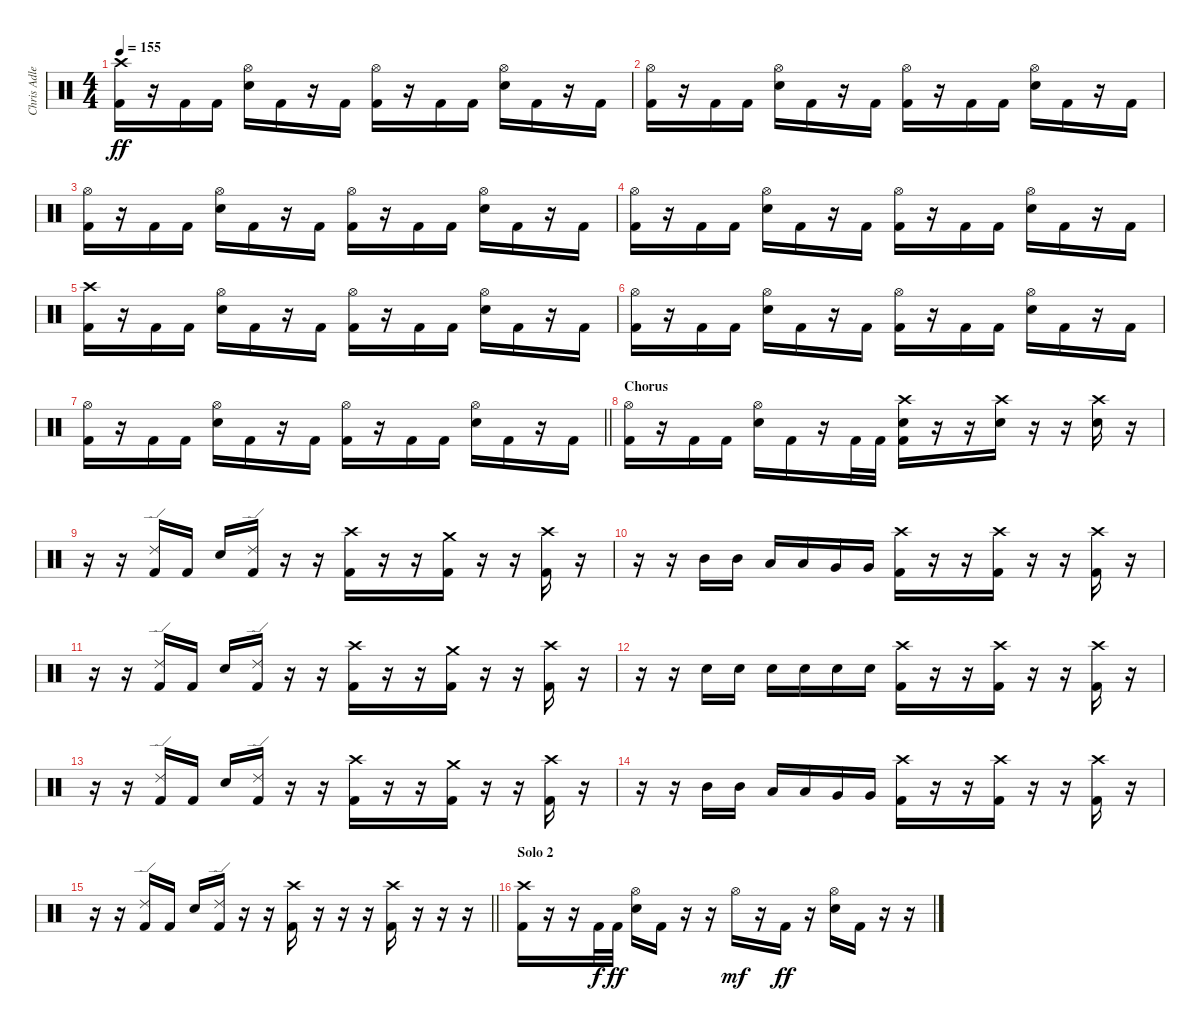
\track ("Chris Adler" "Chris Adle") {instrument percussion}
\staff {score}
\articulation defaults
\ts (4 4)
\tempo 155
\clef neutral
\ks c
("Crash high (hit)" "Kick (hit) 2").16{dy ff} r.16 "Kick (hit) 2".16 "Kick (hit) 2".16 ("Hi-Hat (open)" "Snare (hit) 2").16 "Kick (hit) 2".16 r.16 "Kick (hit) 2".16 ("Hi-Hat (open)" "Kick (hit) 2").16 r.16 "Kick (hit) 2".16 "Kick (hit) 2".16 ("Hi-Hat (open)" "Snare (hit) 2").16 "Kick (hit) 2".16 r.16 "Kick (hit) 2".16 |
("Hi-Hat (open)" "Kick (hit) 2").16 r.16 "Kick (hit) 2".16 "Kick (hit) 2".16 ("Hi-Hat (open)" "Snare (hit) 2").16 "Kick (hit) 2".16 r.16 "Kick (hit) 2".16 ("Hi-Hat (open)" "Kick (hit) 2").16 r.16 "Kick (hit) 2".16 "Kick (hit) 2".16 ("Hi-Hat (open)" "Snare (hit) 2").16 "Kick (hit) 2".16 r.16 "Kick (hit) 2".16 |
("Hi-Hat (open)" "Kick (hit) 2").16 r.16 "Kick (hit) 2".16 "Kick (hit) 2".16 ("Hi-Hat (open)" "Snare (hit) 2").16 "Kick (hit) 2".16 r.16 "Kick (hit) 2".16 ("Hi-Hat (open)" "Kick (hit) 2").16 r.16 "Kick (hit) 2".16 "Kick (hit) 2".16 ("Hi-Hat (open)" "Snare (hit) 2").16 "Kick (hit) 2".16 r.16 "Kick (hit) 2".16 |
("Hi-Hat (open)" "Kick (hit) 2").16 r.16 "Kick (hit) 2".16 "Kick (hit) 2".16 ("Hi-Hat (open)" "Snare (hit) 2").16 "Kick (hit) 2".16 r.16 "Kick (hit) 2".16 ("Hi-Hat (open)" "Kick (hit) 2").16 r.16 "Kick (hit) 2".16 "Kick (hit) 2".16 ("Hi-Hat (open)" "Snare (hit) 2").16 "Kick (hit) 2".16 r.16 "Kick (hit) 2".16 |
("Crash high (hit)" "Kick (hit) 2").16 r.16 "Kick (hit) 2".16 "Kick (hit) 2".16 ("Hi-Hat (open)" "Snare (hit) 2").16 "Kick (hit) 2".16 r.16 "Kick (hit) 2".16 ("Hi-Hat (open)" "Kick (hit) 2").16 r.16 "Kick (hit) 2".16 "Kick (hit) 2".16 ("Hi-Hat (open)" "Snare (hit) 2").16 "Kick (hit) 2".16 r.16 "Kick (hit) 2".16 |
("Hi-Hat (open)" "Kick (hit) 2").16 r.16 "Kick (hit) 2".16 "Kick (hit) 2".16 ("Hi-Hat (open)" "Snare (hit) 2").16 "Kick (hit) 2".16 r.16 "Kick (hit) 2".16 ("Hi-Hat (open)" "Kick (hit) 2").16 r.16 "Kick (hit) 2".16 "Kick (hit) 2".16 ("Hi-Hat (open)" "Snare (hit) 2").16 "Kick (hit) 2".16 r.16 "Kick (hit) 2".16 |
\barLineRight lightlight
("Hi-Hat (open)" "Kick (hit) 2").16 r.16 "Kick (hit) 2".16 "Kick (hit) 2".16 ("Hi-Hat (open)" "Snare (hit) 2").16 "Kick (hit) 2".16 r.16 "Kick (hit) 2".16 ("Hi-Hat (open)" "Kick (hit) 2").16 r.16 "Kick (hit) 2".16 "Kick (hit) 2".16 ("Hi-Hat (open)" "Snare (hit) 2").16 "Kick (hit) 2".16 r.16 "Kick (hit) 2".16 |
\section ("" "Chorus")
("Hi-Hat (open)" "Kick (hit) 2").16 r.16 "Kick (hit) 2".16 "Kick (hit) 2".16 ("Hi-Hat (open)" "Snare (hit) 2").16 "Kick (hit) 2".16 r.16 "Kick (hit) 2".32 "Kick (hit) 2".32 ("Crash high (hit)" "Snare (hit) 2" "Kick (hit) 2").16 r.16 r.16 ("Crash high (hit)" "Snare (hit) 2").16 r.16 r.16 ("Crash high (hit)" "Snare (hit) 2").16 r.16 |
r.16 r.16 ("Ride (edge) 2" "Kick (hit) 2").16 "Kick (hit) 2".16 "Snare (hit) 2".16 ("Ride (edge) 2" "Kick (hit) 2").16 r.16 r.16 ("Crash high (hit)" "Kick (hit) 2").16 r.16 r.16 ("Crash medium (hit)" "Kick (hit) 2").16 r.16 r.16 ("Crash high (hit)" "Kick (hit) 2").16 r.16 |
r.16 r.16 "Mid Tom (hit)".16 "Mid Tom (hit)".16 "Low Tom (hit)".16 "Low Tom (hit)".16 "Very Low Tom (hit)".16 "Very Low Tom (hit)".16 ("Crash high (hit)" "Kick (hit) 2").16 r.16 r.16 ("Crash high (hit)" "Kick (hit) 2").16 r.16 r.16 ("Crash high (hit)" "Kick (hit) 2").16 r.16 |
r.16 r.16 ("Ride (edge) 2" "Kick (hit) 2").16 "Kick (hit) 2".16 "Snare (hit) 2".16 ("Ride (edge) 2" "Kick (hit) 2").16 r.16 r.16 ("Crash high (hit)" "Kick (hit) 2").16 r.16 r.16 ("Crash medium (hit)" "Kick (hit) 2").16 r.16 r.16 ("Crash high (hit)" "Kick (hit) 2").16 r.16 |
r.16 r.16 "Snare (hit) 2".16 "Snare (hit) 2".16 "Snare (hit) 2".16 "Snare (hit) 2".16 "Snare (hit) 2".16 "Snare (hit) 2".16 ("Crash high (hit)" "Kick (hit) 2").16 r.16 r.16 ("Crash high (hit)" "Kick (hit) 2").16 r.16 r.16 ("Crash high (hit)" "Kick (hit) 2").16 r.16 |
r.16 r.16 ("Ride (edge) 2" "Kick (hit) 2").16 "Kick (hit) 2".16 "Snare (hit) 2".16 ("Ride (edge) 2" "Kick (hit) 2").16 r.16 r.16 ("Crash high (hit)" "Kick (hit) 2").16 r.16 r.16 ("Crash medium (hit)" "Kick (hit) 2").16 r.16 r.16 ("Crash high (hit)" "Kick (hit) 2").16 r.16 |
r.16 r.16 "Mid Tom (hit)".16 "Mid Tom (hit)".16 "Low Tom (hit)".16 "Low Tom (hit)".16 "Very Low Tom (hit)".16 "Very Low Tom (hit)".16 ("Crash high (hit)" "Kick (hit) 2").16 r.16 r.16 ("Crash high (hit)" "Kick (hit) 2").16 r.16 r.16 ("Crash high (hit)" "Kick (hit) 2").16 r.16 |
\barLineRight lightlight
r.16 r.16 ("Ride (edge) 2" "Kick (hit) 2").16 "Kick (hit) 2".16 "Snare (hit) 2".16 ("Ride (edge) 2" "Kick (hit) 2").16 r.16 r.16 ("Crash high (hit)" "Kick (hit) 2").16 r.16 r.16 r.16 ("Crash high (hit)" "Kick (hit) 2").16 r.16 r.16 r.16 |
\section ("" "Solo 2")
("Crash high (hit)" "Kick (hit) 2").16 r.16 r.16 "Kick (hit) 2".32{dy f} "Kick (hit) 2".32{dy ff} ("Hi-Hat (open)" "Snare (hit) 2").16 "Kick (hit) 2".16 r.16 r.16 "Hi-Hat (open)".16{dy mf} r.16 "Kick (hit) 2".16{dy ff} r.16 ("Hi-Hat (open)" "Snare (hit) 2").16 "Kick (hit) 2".16 r.16 r.16
